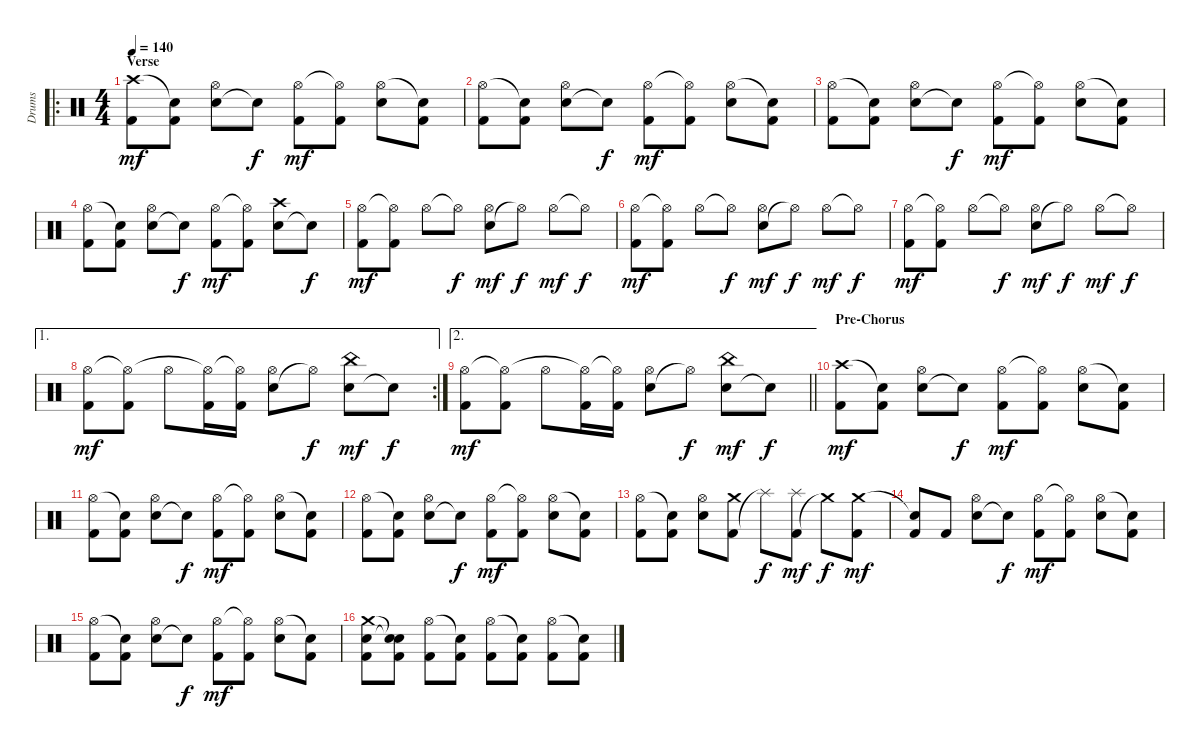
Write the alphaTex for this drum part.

\track ("Drums" "Drums") {instrument percussion}
\staff {score}
\articulation defaults
\ro
\ts (4 4)
\section ("" "Verse")
\tempo 140
\clef neutral
\ks c
("Kick (hit) 2" "Crash high (hit)").8{dy mf} ("Kick (hit) 2" "Snare (hit)"{t}).8 ("Snare (hit) 2" "Hi-Hat (open)").8 "Snare (hit)"{t}.8{dy f} ("Kick (hit) 2" "Hi-Hat (open)").8{dy mf} ("Kick (hit) 2" "Hi-Hat (open)"{t}).8 ("Snare (hit) 2" "Hi-Hat (open)").8 ("Kick (hit) 2" "Snare (hit)"{t}).8 |
("Kick (hit) 2" "Hi-Hat (open)").8 ("Kick (hit) 2" "Snare (hit)"{t}).8 ("Snare (hit) 2" "Hi-Hat (open)").8 "Snare (hit)"{t}.8{dy f} ("Kick (hit) 2" "Hi-Hat (open)").8{dy mf} ("Kick (hit) 2" "Hi-Hat (open)"{t}).8 ("Snare (hit) 2" "Hi-Hat (open)").8 ("Kick (hit) 2" "Snare (hit)"{t}).8 |
("Kick (hit) 2" "Hi-Hat (open)").8 ("Kick (hit) 2" "Snare (hit)"{t}).8 ("Snare (hit) 2" "Hi-Hat (open)").8 "Snare (hit)"{t}.8{dy f} ("Kick (hit) 2" "Hi-Hat (open)").8{dy mf} ("Kick (hit) 2" "Hi-Hat (open)"{t}).8 ("Snare (hit) 2" "Hi-Hat (open)").8 ("Kick (hit) 2" "Snare (hit)"{t}).8 |
("Kick (hit) 2" "Hi-Hat (open)").8 ("Kick (hit) 2" "Snare (hit)"{t}).8 ("Snare (hit) 2" "Hi-Hat (open)").8 "Snare (hit)"{t}.8{dy f} ("Kick (hit) 2" "Hi-Hat (open)").8{dy mf} ("Kick (hit) 2" "Hi-Hat (open)"{t}).8 ("Snare (hit) 2" "Crash high (hit)").8 "Snare (hit)"{t}.8{dy f} |
("Kick (hit) 2" "Hi-Hat (open)").8{dy mf} ("Kick (hit) 2" "Hi-Hat (open)"{t}).8 "Hi-Hat (open)".8 "Hi-Hat (open)"{t}.8{dy f} ("Snare (hit) 2" "Hi-Hat (open)").8{dy mf} "Hi-Hat (open)"{t}.8{dy f} "Hi-Hat (open)".8{dy mf} "Hi-Hat (open)"{t}.8{dy f} |
("Kick (hit) 2" "Hi-Hat (open)").8{dy mf} ("Kick (hit) 2" "Hi-Hat (open)"{t}).8 "Hi-Hat (open)".8 "Hi-Hat (open)"{t}.8{dy f} ("Snare (hit) 2" "Hi-Hat (open)").8{dy mf} "Hi-Hat (open)"{t}.8{dy f} "Hi-Hat (open)".8{dy mf} "Hi-Hat (open)"{t}.8{dy f} |
("Kick (hit) 2" "Hi-Hat (open)").8{dy mf} ("Kick (hit) 2" "Hi-Hat (open)"{t}).8 "Hi-Hat (open)".8 "Hi-Hat (open)"{t}.8{dy f} ("Snare (hit) 2" "Hi-Hat (open)").8{dy mf} "Hi-Hat (open)"{t}.8{dy f} "Hi-Hat (open)".8{dy mf} "Hi-Hat (open)"{t}.8{dy f} |
\ae 1
\rc 2
("Kick (hit) 2" "Hi-Hat (open)").8{dy mf} ("Kick (hit) 2" "Hi-Hat (open)"{t}).8 "Hi-Hat (open)".8 ("Kick (hit) 2" "Hi-Hat (open)"{t}).16 ("Kick (hit) 2" "Hi-Hat (open)"{t}).16 ("Snare (hit) 2" "Hi-Hat (open)").8 "Hi-Hat (open)"{t}.8{dy f} ("Snare (hit) 2" "China (hit)").8{dy mf} "Snare (hit)"{t}.8{dy f} |
\ae 2
\barLineRight lightlight
("Kick (hit) 2" "Hi-Hat (open)").8{dy mf} ("Kick (hit) 2" "Hi-Hat (open)"{t}).8 "Hi-Hat (open)".8 ("Kick (hit) 2" "Hi-Hat (open)"{t}).16 ("Kick (hit) 2" "Hi-Hat (open)"{t}).16 ("Snare (hit) 2" "Hi-Hat (open)").8 "Hi-Hat (open)"{t}.8{dy f} ("Snare (hit) 2" "China (hit)").8{dy mf} "Snare (hit)"{t}.8{dy f} |
\section ("" "Pre-Chorus")
("Kick (hit) 2" "Crash high (hit)").8{dy mf} ("Kick (hit) 2" "Snare (hit)"{t}).8 ("Snare (hit) 2" "Hi-Hat (open)").8 "Snare (hit)"{t}.8{dy f} ("Kick (hit) 2" "Hi-Hat (open)").8{dy mf} ("Kick (hit) 2" "Hi-Hat (open)"{t}).8 ("Snare (hit) 2" "Hi-Hat (open)").8 ("Kick (hit) 2" "Snare (hit)"{t}).8 |
("Kick (hit) 2" "Hi-Hat (open)").8 ("Kick (hit) 2" "Snare (hit)"{t}).8 ("Snare (hit) 2" "Hi-Hat (open)").8 "Snare (hit)"{t}.8{dy f} ("Kick (hit) 2" "Hi-Hat (open)").8{dy mf} ("Kick (hit) 2" "Hi-Hat (open)"{t}).8 ("Snare (hit) 2" "Hi-Hat (open)").8 ("Kick (hit) 2" "Snare (hit)"{t}).8 |
("Kick (hit) 2" "Hi-Hat (open)").8 ("Kick (hit) 2" "Snare (hit)"{t}).8 ("Snare (hit) 2" "Hi-Hat (open)").8 "Snare (hit)"{t}.8{dy f} ("Kick (hit) 2" "Hi-Hat (open)").8{dy mf} ("Kick (hit) 2" "Hi-Hat (open)"{t}).8 ("Snare (hit) 2" "Hi-Hat (open)").8 ("Kick (hit) 2" "Snare (hit)"{t}).8 |
("Kick (hit) 2" "Hi-Hat (open)").8 ("Kick (hit) 2" "Snare (hit)"{t}).8 ("Snare (hit) 2" "Hi-Hat (open)").8 ("Kick (hit) 2" "Crash medium (hit)").8 "Splash (hit)"{t}.8{dy f} ("Kick (hit) 2" "Splash (hit)").8{dy mf} "Crash medium (hit)"{t}.8{dy f} ("Kick (hit) 2" "Crash medium (hit)").8{dy mf} |
("Kick (hit) 2" "Snare (hit)"{t}).8 "Kick (hit) 2".8 ("Snare (hit) 2" "Hi-Hat (open)").8 "Snare (hit)"{t}.8{dy f} ("Kick (hit) 2" "Hi-Hat (open)").8{dy mf} ("Kick (hit) 2" "Hi-Hat (open)"{t}).8 ("Snare (hit) 2" "Hi-Hat (open)").8 ("Kick (hit) 2" "Snare (hit)"{t}).8 |
("Kick (hit) 2" "Hi-Hat (open)").8 ("Kick (hit) 2" "Snare (hit)"{t}).8 ("Snare (hit) 2" "Hi-Hat (open)").8 "Snare (hit)"{t}.8{dy f} ("Kick (hit) 2" "Hi-Hat (open)").8{dy mf} ("Kick (hit) 2" "Hi-Hat (open)"{t}).8 ("Snare (hit) 2" "Hi-Hat (open)").8 ("Kick (hit) 2" "Snare (hit)"{t}).8 |
("Kick (hit) 2" "Snare (hit) 2" "Crash medium (hit)").8 ("Kick (hit) 2" "Snare (hit)"{t} "Snare (hit)"{t}).8 ("Kick (hit) 2" "Hi-Hat (open)").8 ("Kick (hit) 2" "Snare (hit)"{t}).8 ("Kick (hit) 2" "Hi-Hat (open)").8 ("Kick (hit) 2" "Snare (hit)"{t}).8 ("Kick (hit) 2" "Hi-Hat (open)").8 ("Kick (hit) 2" "Snare (hit)"{t}).8
